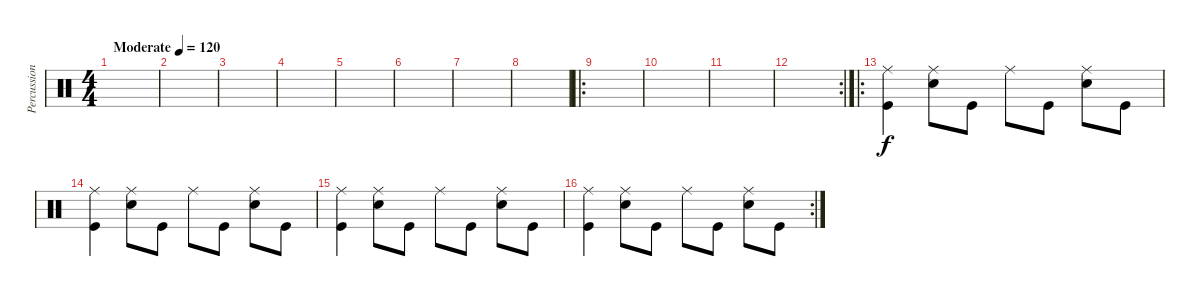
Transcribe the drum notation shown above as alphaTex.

\track ("Percussion" "Percussion") {instrument percussion}
\staff {score}
\articulation defaults
\ts (4 4)
\tempo (120 "Moderate")
\clef neutral
\ks c
|
|
|
|
|
|
|
|
\ro
|
|
|
\rc 2
|
\ro
("Ride (middle)" "Kick (hit)").4 ("Ride (middle)" "Snare (hit) 2").8 "Kick (hit)".8 "Ride (middle)".8 "Kick (hit)".8 ("Ride (middle)" "Snare (hit) 2").8 "Kick (hit)".8 |
("Ride (middle)" "Kick (hit)").4 ("Ride (middle)" "Snare (hit) 2").8 "Kick (hit)".8 "Ride (middle)".8 "Kick (hit)".8 ("Ride (middle)" "Snare (hit) 2").8 "Kick (hit)".8 |
("Ride (middle)" "Kick (hit)").4 ("Ride (middle)" "Snare (hit) 2").8 "Kick (hit)".8 "Ride (middle)".8 "Kick (hit)".8 ("Ride (middle)" "Snare (hit) 2").8 "Kick (hit)".8 |
\rc 2
("Ride (middle)" "Kick (hit)").4 ("Ride (middle)" "Snare (hit) 2").8 "Kick (hit)".8 "Ride (middle)".8 "Kick (hit)".8 ("Ride (middle)" "Snare (hit) 2").8 "Kick (hit)".8
